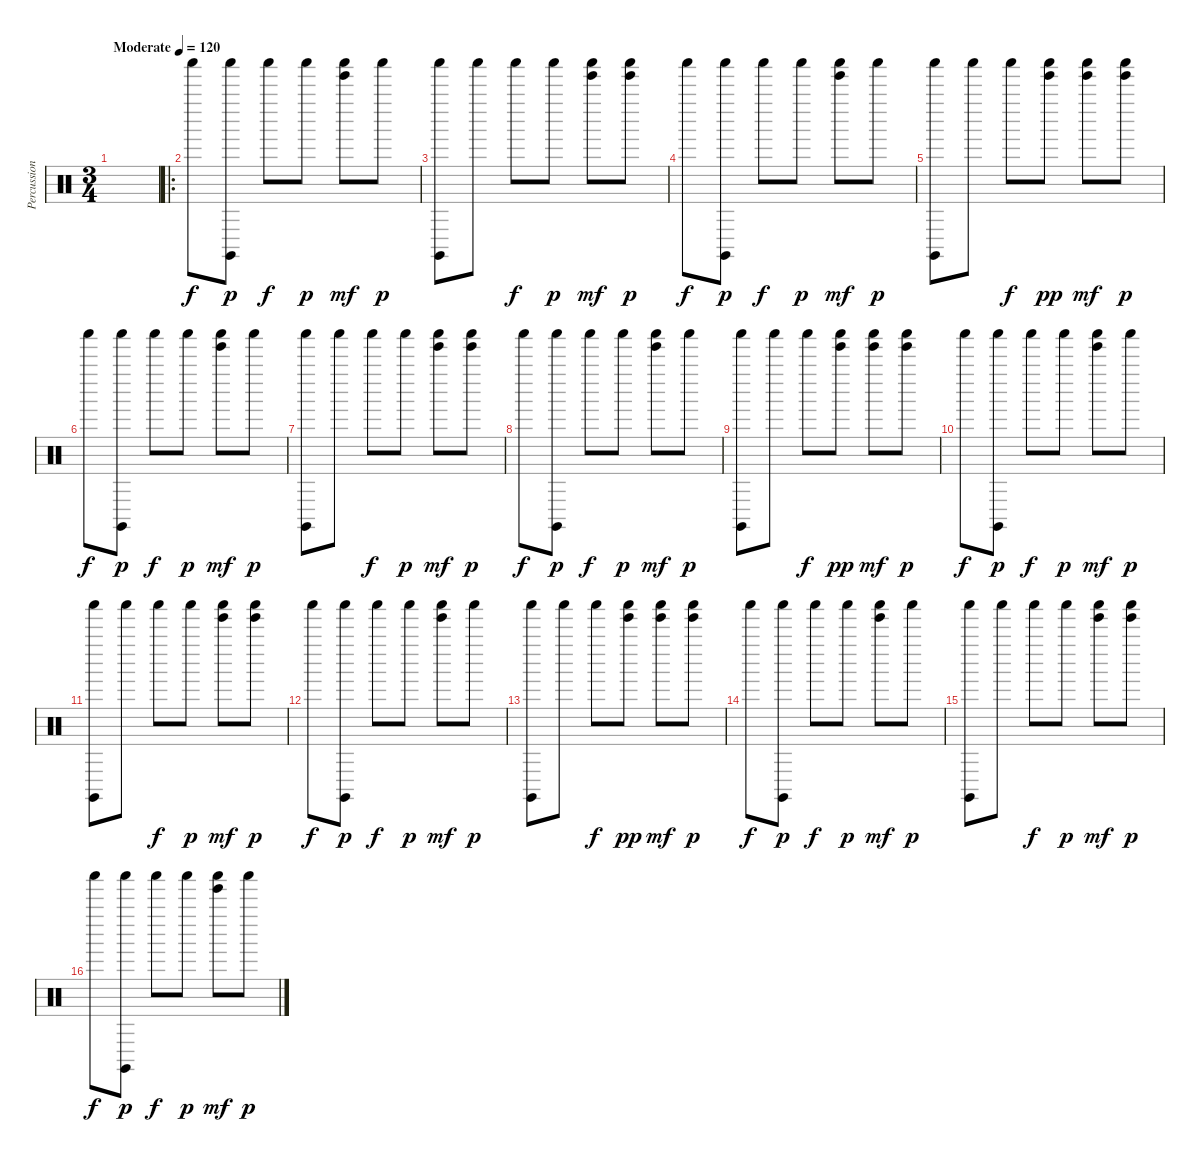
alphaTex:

\track ("Percussion" "Percussion") {instrument percussion}
\staff {score}
\articulation defaults
\ts (3 4)
\tempo (120 "Moderate")
\clef neutral
\ks c
|
\ro "Shaker (hit)".8
("Shaker (hit)" "Claves (hit)").8{dy p} "Shaker (hit)".8{dy f} "Shaker (hit)".8{dy p} ("Shaker (hit)" "Tinkle Bell (hit)").8{dy mf} "Shaker (hit)".8{dy p} |
("Shaker (hit)" "Claves (hit)").8 "Shaker (hit)".8 "Shaker (hit)".8{dy f} "Shaker (hit)".8{dy p} ("Shaker (hit)" "Tinkle Bell (hit)").8{dy mf} ("Shaker (hit)" "Tinkle Bell (hit)").8{dy p} |
"Shaker (hit)".8{dy f} ("Shaker (hit)" "Claves (hit)").8{dy p} "Shaker (hit)".8{dy f} "Shaker (hit)".8{dy p} ("Shaker (hit)" "Tinkle Bell (hit)").8{dy mf} "Shaker (hit)".8{dy p} |
("Shaker (hit)" "Claves (hit)").8 "Shaker (hit)".8 "Shaker (hit)".8{dy f} ("Shaker (hit)" "Tinkle Bell (hit)").8{dy pp} ("Shaker (hit)" "Tinkle Bell (hit)").8{dy mf} ("Shaker (hit)" "Tinkle Bell (hit)").8{dy p} |
"Shaker (hit)".8{dy f} ("Shaker (hit)" "Claves (hit)").8{dy p} "Shaker (hit)".8{dy f} "Shaker (hit)".8{dy p} ("Shaker (hit)" "Tinkle Bell (hit)").8{dy mf} "Shaker (hit)".8{dy p} |
("Shaker (hit)" "Claves (hit)").8 "Shaker (hit)".8 "Shaker (hit)".8{dy f} "Shaker (hit)".8{dy p} ("Shaker (hit)" "Tinkle Bell (hit)").8{dy mf} ("Shaker (hit)" "Tinkle Bell (hit)").8{dy p} |
"Shaker (hit)".8{dy f} ("Shaker (hit)" "Claves (hit)").8{dy p} "Shaker (hit)".8{dy f} "Shaker (hit)".8{dy p} ("Shaker (hit)" "Tinkle Bell (hit)").8{dy mf} "Shaker (hit)".8{dy p} |
("Shaker (hit)" "Claves (hit)").8 "Shaker (hit)".8 "Shaker (hit)".8{dy f} ("Shaker (hit)" "Tinkle Bell (hit)").8{dy pp} ("Shaker (hit)" "Tinkle Bell (hit)").8{dy mf} ("Shaker (hit)" "Tinkle Bell (hit)").8{dy p} |
"Shaker (hit)".8{dy f} ("Shaker (hit)" "Claves (hit)").8{dy p} "Shaker (hit)".8{dy f} "Shaker (hit)".8{dy p} ("Shaker (hit)" "Tinkle Bell (hit)").8{dy mf} "Shaker (hit)".8{dy p} |
("Shaker (hit)" "Claves (hit)").8 "Shaker (hit)".8 "Shaker (hit)".8{dy f} "Shaker (hit)".8{dy p} ("Shaker (hit)" "Tinkle Bell (hit)").8{dy mf} ("Shaker (hit)" "Tinkle Bell (hit)").8{dy p} |
"Shaker (hit)".8{dy f} ("Shaker (hit)" "Claves (hit)").8{dy p} "Shaker (hit)".8{dy f} "Shaker (hit)".8{dy p} ("Shaker (hit)" "Tinkle Bell (hit)").8{dy mf} "Shaker (hit)".8{dy p} |
("Shaker (hit)" "Claves (hit)").8 "Shaker (hit)".8 "Shaker (hit)".8{dy f} ("Shaker (hit)" "Tinkle Bell (hit)").8{dy pp} ("Shaker (hit)" "Tinkle Bell (hit)").8{dy mf} ("Shaker (hit)" "Tinkle Bell (hit)").8{dy p} |
"Shaker (hit)".8{dy f} ("Shaker (hit)" "Claves (hit)").8{dy p} "Shaker (hit)".8{dy f} "Shaker (hit)".8{dy p} ("Shaker (hit)" "Tinkle Bell (hit)").8{dy mf} "Shaker (hit)".8{dy p} |
("Shaker (hit)" "Claves (hit)").8 "Shaker (hit)".8 "Shaker (hit)".8{dy f} "Shaker (hit)".8{dy p} ("Shaker (hit)" "Tinkle Bell (hit)").8{dy mf} ("Shaker (hit)" "Tinkle Bell (hit)").8{dy p} |
"Shaker (hit)".8{dy f} ("Shaker (hit)" "Claves (hit)").8{dy p} "Shaker (hit)".8{dy f} "Shaker (hit)".8{dy p} ("Shaker (hit)" "Tinkle Bell (hit)").8{dy mf} "Shaker (hit)".8{dy p}
